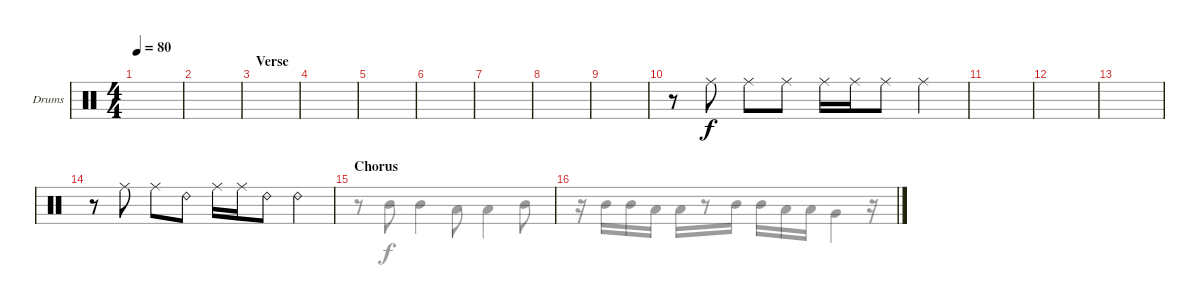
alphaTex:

\defaultSystemsLayout 4
\bracketExtendMode groupsimilarinstruments
\firstSystemTrackNameOrientation horizontal
\otherSystemsTrackNameOrientation horizontal
\track ("Drumkit" "Drums") {instrument percussion}
\staff {score}
\articulation defaults
\voice
\ts (4 4)
\tempo 80
\clef neutral
\ks c
|
|
\section ("" "Verse")
|
|
|
|
|
|
|
r.8 "Ride (middle)".8 "Ride (middle)".8 "Ride (middle)".8 "Ride (middle)".16 "Ride (middle)".16 "Ride (middle)".8 "Ride (middle)".4 |
|
|
|
r.8 "Ride (middle)".8 "Ride (middle)".8 "Ride (bell) 2".8 "Ride (middle)".16 "Ride (middle)".16 "Ride (bell) 2".8 "Ride (bell) 2".4 |
\section ("" "Chorus")
|
\voice
\clef neutral
\ottava regular
\simile none
\ks c
|
|
|
|
|
|
|
|
|
|
|
|
|
|
r.8 "Mid Tom (hit)".8 "Mid Tom (hit)".4 "Low Tom (hit)".8 "Low Tom (hit)".4 "Mid Tom (hit)".8 |
r.16 "Mid Tom (hit)".16 "Mid Tom (hit)".16 "Low Tom (hit)".16 "Low Tom (hit)".16 r.8 "Mid Tom (hit)".16 "Mid Tom (hit)".16 "Low Tom (hit)".16 "Low Tom (hit)".16 "Very Low Tom (hit)".4 r.16
